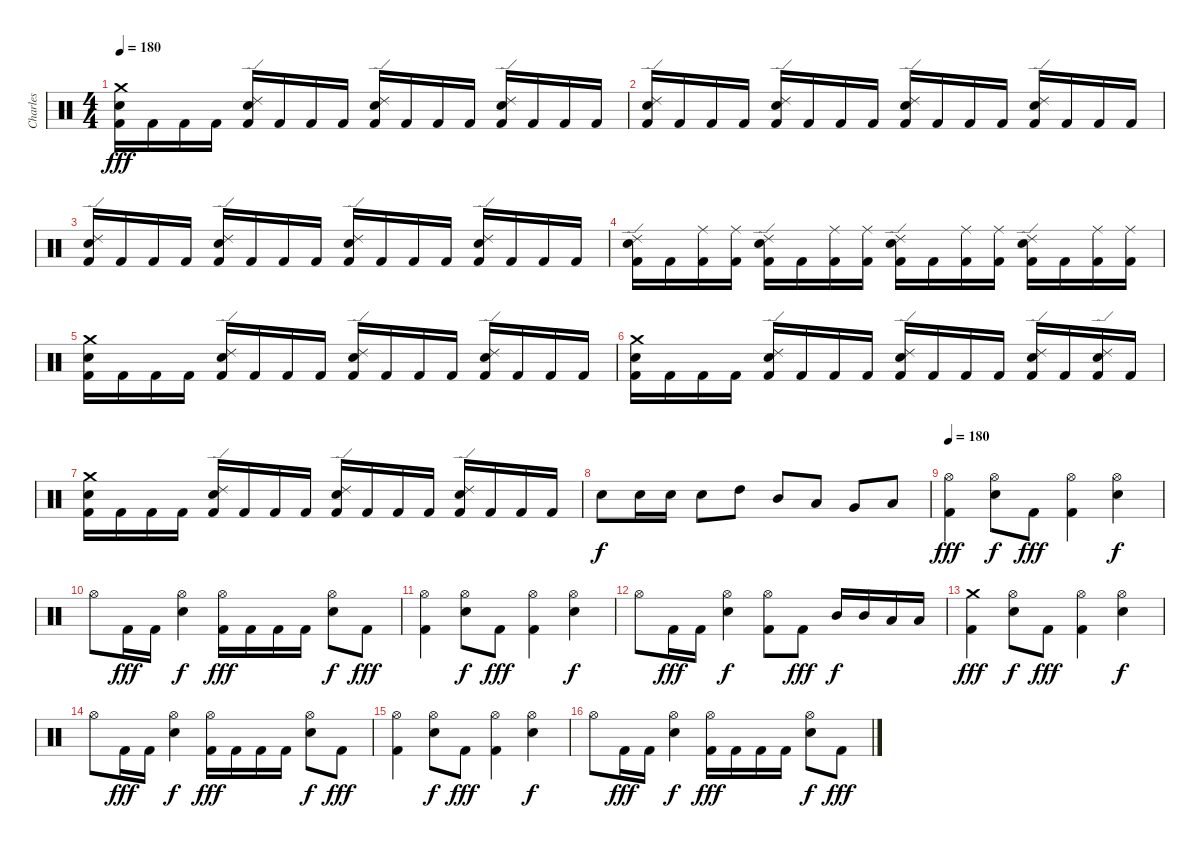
\track ("Charles" "Charles") {instrument percussion}
\staff {score}
\articulation defaults
\ts (4 4)
\tempo 180
\clef neutral
\ks c
("Crash medium (hit)" "Electric Snare (hit)" "Kick (hit) 2").16{dy fff} "Kick (hit) 2".16 "Kick (hit) 2".16 "Kick (hit) 2".16 ("Ride (edge) 2" "Electric Snare (hit)" "Kick (hit) 2").16 "Kick (hit) 2".16 "Kick (hit) 2".16 "Kick (hit) 2".16 ("Ride (edge) 2" "Electric Snare (hit)" "Kick (hit) 2").16 "Kick (hit) 2".16 "Kick (hit) 2".16 "Kick (hit) 2".16 ("Ride (edge) 2" "Electric Snare (hit)" "Kick (hit) 2").16 "Kick (hit) 2".16 "Kick (hit) 2".16 "Kick (hit) 2".16 |
("Ride (edge) 2" "Electric Snare (hit)" "Kick (hit) 2").16 "Kick (hit) 2".16 "Kick (hit) 2".16 "Kick (hit) 2".16 ("Ride (edge) 2" "Electric Snare (hit)" "Kick (hit) 2").16 "Kick (hit) 2".16 "Kick (hit) 2".16 "Kick (hit) 2".16 ("Ride (edge) 2" "Electric Snare (hit)" "Kick (hit) 2").16 "Kick (hit) 2".16 "Kick (hit) 2".16 "Kick (hit) 2".16 ("Ride (edge) 2" "Electric Snare (hit)" "Kick (hit) 2").16 "Kick (hit) 2".16 "Kick (hit) 2".16 "Kick (hit) 2".16 |
("Ride (edge) 2" "Electric Snare (hit)" "Kick (hit) 2").16 "Kick (hit) 2".16 "Kick (hit) 2".16 "Kick (hit) 2".16 ("Ride (edge) 2" "Electric Snare (hit)" "Kick (hit) 2").16 "Kick (hit) 2".16 "Kick (hit) 2".16 "Kick (hit) 2".16 ("Ride (edge) 2" "Electric Snare (hit)" "Kick (hit) 2").16 "Kick (hit) 2".16 "Kick (hit) 2".16 "Kick (hit) 2".16 ("Ride (edge) 2" "Electric Snare (hit)" "Kick (hit) 2").16 "Kick (hit) 2".16 "Kick (hit) 2".16 "Kick (hit) 2".16 |
("Ride (edge) 2" "Electric Snare (hit)" "Kick (hit) 2").16 "Kick (hit) 2".16 ("Ride (middle)" "Kick (hit) 2").16 ("Ride (middle)" "Kick (hit) 2").16 ("Ride (edge) 2" "Electric Snare (hit)" "Kick (hit) 2").16 "Kick (hit) 2".16 ("Ride (middle)" "Kick (hit) 2").16 ("Ride (middle)" "Kick (hit) 2").16 ("Ride (edge) 2" "Electric Snare (hit)" "Kick (hit) 2").16 "Kick (hit) 2".16 ("Ride (middle)" "Kick (hit) 2").16 ("Ride (middle)" "Kick (hit) 2").16 ("Ride (edge) 2" "Electric Snare (hit)" "Kick (hit) 2").16 "Kick (hit) 2".16 ("Ride (middle)" "Kick (hit) 2").16 ("Ride (middle)" "Kick (hit) 2").16 |
("Crash medium (hit)" "Electric Snare (hit)" "Kick (hit) 2").16 "Kick (hit) 2".16 "Kick (hit) 2".16 "Kick (hit) 2".16 ("Ride (edge) 2" "Electric Snare (hit)" "Kick (hit) 2").16 "Kick (hit) 2".16 "Kick (hit) 2".16 "Kick (hit) 2".16 ("Ride (edge) 2" "Electric Snare (hit)" "Kick (hit) 2").16 "Kick (hit) 2".16 "Kick (hit) 2".16 "Kick (hit) 2".16 ("Ride (edge) 2" "Electric Snare (hit)" "Kick (hit) 2").16 "Kick (hit) 2".16 "Kick (hit) 2".16 "Kick (hit) 2".16 |
("Crash medium (hit)" "Electric Snare (hit)" "Kick (hit) 2").16 "Kick (hit) 2".16 "Kick (hit) 2".16 "Kick (hit) 2".16 ("Ride (edge) 2" "Electric Snare (hit)" "Kick (hit) 2").16 "Kick (hit) 2".16 "Kick (hit) 2".16 "Kick (hit) 2".16 ("Ride (edge) 2" "Electric Snare (hit)" "Kick (hit) 2").16 "Kick (hit) 2".16 "Kick (hit) 2".16 "Kick (hit) 2".16 ("Ride (edge) 2" "Electric Snare (hit)" "Kick (hit) 2").16 "Kick (hit) 2".16 ("Ride (edge) 2" "Electric Snare (hit)" "Kick (hit) 2").16 "Kick (hit) 2".16 |
("Crash medium (hit)" "Electric Snare (hit)" "Kick (hit) 2").16 "Kick (hit) 2".16 "Kick (hit) 2".16 "Kick (hit) 2".16 ("Ride (edge) 2" "Electric Snare (hit)" "Kick (hit) 2").16 "Kick (hit) 2".16 "Kick (hit) 2".16 "Kick (hit) 2".16 ("Ride (edge) 2" "Electric Snare (hit)" "Kick (hit) 2").16 "Kick (hit) 2".16 "Kick (hit) 2".16 "Kick (hit) 2".16 ("Ride (edge) 2" "Electric Snare (hit)" "Kick (hit) 2").16 "Kick (hit) 2".16 "Kick (hit) 2".16 "Kick (hit) 2".16 |
"Electric Snare (hit)".8{dy f} "Electric Snare (hit)".16 "Electric Snare (hit)".16 "Electric Snare (hit)".8 "High Tom (hit)".8 "Mid Tom (hit)".8 "Low Tom (hit)".8 "Very Low Tom (hit)".8 "Low Floor Tom (hit)".8 |
\tempo 180
("Hi-Hat (open)" "Kick (hit) 2").4{dy fff} ("Hi-Hat (open)" "Electric Snare (hit)").8{dy f} "Kick (hit) 2".8{dy fff} ("Hi-Hat (open)" "Kick (hit) 2").4 ("Hi-Hat (open)" "Electric Snare (hit)").4{dy f} |
"Hi-Hat (open)".8 "Kick (hit) 2".16{dy fff} "Kick (hit) 2".16 ("Hi-Hat (open)" "Electric Snare (hit)").4{dy f} ("Hi-Hat (open)" "Kick (hit) 2").16{dy fff} "Kick (hit) 2".16 "Kick (hit) 2".16 "Kick (hit) 2".16 ("Hi-Hat (open)" "Electric Snare (hit)").8{dy f} "Kick (hit) 2".8{dy fff} |
("Hi-Hat (open)" "Kick (hit) 2").4 ("Hi-Hat (open)" "Electric Snare (hit)").8{dy f} "Kick (hit) 2".8{dy fff} ("Hi-Hat (open)" "Kick (hit) 2").4 ("Hi-Hat (open)" "Electric Snare (hit)").4{dy f} |
"Hi-Hat (open)".8 "Kick (hit) 2".16{dy fff} "Kick (hit) 2".16 ("Hi-Hat (open)" "Electric Snare (hit)").4{dy f} ("Hi-Hat (open)" "Kick (hit) 2").8 "Kick (hit) 2".8{dy fff} "Mid Tom (hit)".16{dy f} "Mid Tom (hit)".16 "Low Tom (hit)".16 "Low Tom (hit)".16 |
("Crash medium (hit)" "Kick (hit) 2").4{dy fff} ("Hi-Hat (open)" "Electric Snare (hit)").8{dy f} "Kick (hit) 2".8{dy fff} ("Hi-Hat (open)" "Kick (hit) 2").4 ("Hi-Hat (open)" "Electric Snare (hit)").4{dy f} |
"Hi-Hat (open)".8 "Kick (hit) 2".16{dy fff} "Kick (hit) 2".16 ("Hi-Hat (open)" "Electric Snare (hit)").4{dy f} ("Hi-Hat (open)" "Kick (hit) 2").16{dy fff} "Kick (hit) 2".16 "Kick (hit) 2".16 "Kick (hit) 2".16 ("Hi-Hat (open)" "Electric Snare (hit)").8{dy f} "Kick (hit) 2".8{dy fff} |
("Hi-Hat (open)" "Kick (hit) 2").4 ("Hi-Hat (open)" "Electric Snare (hit)").8{dy f} "Kick (hit) 2".8{dy fff} ("Hi-Hat (open)" "Kick (hit) 2").4 ("Hi-Hat (open)" "Electric Snare (hit)").4{dy f} |
"Hi-Hat (open)".8 "Kick (hit) 2".16{dy fff} "Kick (hit) 2".16 ("Hi-Hat (open)" "Electric Snare (hit)").4{dy f} ("Hi-Hat (open)" "Kick (hit) 2").16{dy fff} "Kick (hit) 2".16 "Kick (hit) 2".16 "Kick (hit) 2".16 ("Hi-Hat (open)" "Electric Snare (hit)").8{dy f} "Kick (hit) 2".8{dy fff}
